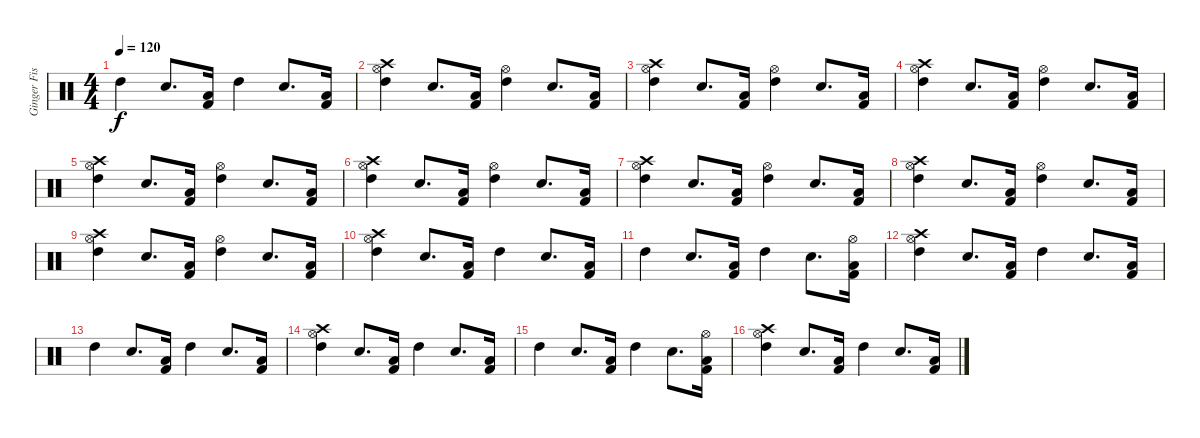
\track ("Ginger Fish" "Ginger Fis") {instrument percussion}
\staff {score}
\articulation defaults
\ts (4 4)
\tempo 120
\clef neutral
\ks c "High Tom (hit)".4{dy f} "Electric Snare (hit)".8{d}
("Low Tom (hit)" "Kick (hit) 2").16 "High Tom (hit)".4 "Electric Snare (hit)".8{d} ("Low Tom (hit)" "Kick (hit) 2").16 |
("Crash high (hit)" "Hi-Hat (open)" "High Tom (hit)").4 "Electric Snare (hit)".8{d} ("Low Tom (hit)" "Kick (hit) 2").16 ("Hi-Hat (open)" "High Tom (hit)").4 "Electric Snare (hit)".8{d} ("Low Tom (hit)" "Kick (hit) 2").16 |
("Crash high (hit)" "Hi-Hat (open)" "High Tom (hit)").4 "Electric Snare (hit)".8{d} ("Low Tom (hit)" "Kick (hit) 2").16 ("Hi-Hat (open)" "High Tom (hit)").4 "Electric Snare (hit)".8{d} ("Low Tom (hit)" "Kick (hit) 2").16 |
("Crash high (hit)" "Hi-Hat (open)" "High Tom (hit)").4 "Electric Snare (hit)".8{d} ("Low Tom (hit)" "Kick (hit) 2").16 ("Hi-Hat (open)" "High Tom (hit)").4 "Electric Snare (hit)".8{d} ("Low Tom (hit)" "Kick (hit) 2").16 |
("Crash high (hit)" "Hi-Hat (open)" "High Tom (hit)").4 "Electric Snare (hit)".8{d} ("Low Tom (hit)" "Kick (hit) 2").16 ("Hi-Hat (open)" "High Tom (hit)").4 "Electric Snare (hit)".8{d} ("Low Tom (hit)" "Kick (hit) 2").16 |
("Crash high (hit)" "Hi-Hat (open)" "High Tom (hit)").4 "Electric Snare (hit)".8{d} ("Low Tom (hit)" "Kick (hit) 2").16 ("Hi-Hat (open)" "High Tom (hit)").4 "Electric Snare (hit)".8{d} ("Low Tom (hit)" "Kick (hit) 2").16 |
("Crash high (hit)" "Hi-Hat (open)" "High Tom (hit)").4 "Electric Snare (hit)".8{d} ("Low Tom (hit)" "Kick (hit) 2").16 ("Hi-Hat (open)" "High Tom (hit)").4 "Electric Snare (hit)".8{d} ("Low Tom (hit)" "Kick (hit) 2").16 |
("Crash high (hit)" "Hi-Hat (open)" "High Tom (hit)").4 "Electric Snare (hit)".8{d} ("Low Tom (hit)" "Kick (hit) 2").16 ("Hi-Hat (open)" "High Tom (hit)").4 "Electric Snare (hit)".8{d} ("Low Tom (hit)" "Kick (hit) 2").16 |
("Crash high (hit)" "Hi-Hat (open)" "High Tom (hit)").4 "Electric Snare (hit)".8{d} ("Low Tom (hit)" "Kick (hit) 2").16 ("Hi-Hat (open)" "High Tom (hit)").4 "Electric Snare (hit)".8{d} ("Low Tom (hit)" "Kick (hit) 2").16 |
("Hi-Hat (open)" "Crash high (hit)" "High Tom (hit)").4 "Electric Snare (hit)".8{d} ("Low Tom (hit)" "Kick (hit) 2").16 "High Tom (hit)".4 "Electric Snare (hit)".8{d} ("Low Tom (hit)" "Kick (hit) 2").16 |
"High Tom (hit)".4 "Electric Snare (hit)".8{d} ("Low Tom (hit)" "Kick (hit) 2").16 "High Tom (hit)".4 "Electric Snare (hit)".8{d} ("Hi-Hat (open)" "Low Tom (hit)" "Kick (hit) 2").16 |
("Hi-Hat (open)" "Crash high (hit)" "High Tom (hit)").4 "Electric Snare (hit)".8{d} ("Low Tom (hit)" "Kick (hit) 2").16 "High Tom (hit)".4 "Electric Snare (hit)".8{d} ("Low Tom (hit)" "Kick (hit) 2").16 |
"High Tom (hit)".4 "Electric Snare (hit)".8{d} ("Low Tom (hit)" "Kick (hit) 2").16 "High Tom (hit)".4 "Electric Snare (hit)".8{d} ("Low Tom (hit)" "Kick (hit) 2").16 |
("Hi-Hat (open)" "Crash high (hit)" "High Tom (hit)").4 "Electric Snare (hit)".8{d} ("Low Tom (hit)" "Kick (hit) 2").16 "High Tom (hit)".4 "Electric Snare (hit)".8{d} ("Low Tom (hit)" "Kick (hit) 2").16 |
"High Tom (hit)".4 "Electric Snare (hit)".8{d} ("Low Tom (hit)" "Kick (hit) 2").16 "High Tom (hit)".4 "Electric Snare (hit)".8{d} ("Hi-Hat (open)" "Low Tom (hit)" "Kick (hit) 2").16 |
("Hi-Hat (open)" "Crash high (hit)" "High Tom (hit)").4 "Electric Snare (hit)".8{d} ("Low Tom (hit)" "Kick (hit) 2").16 "High Tom (hit)".4 "Electric Snare (hit)".8{d} ("Low Tom (hit)" "Kick (hit) 2").16
